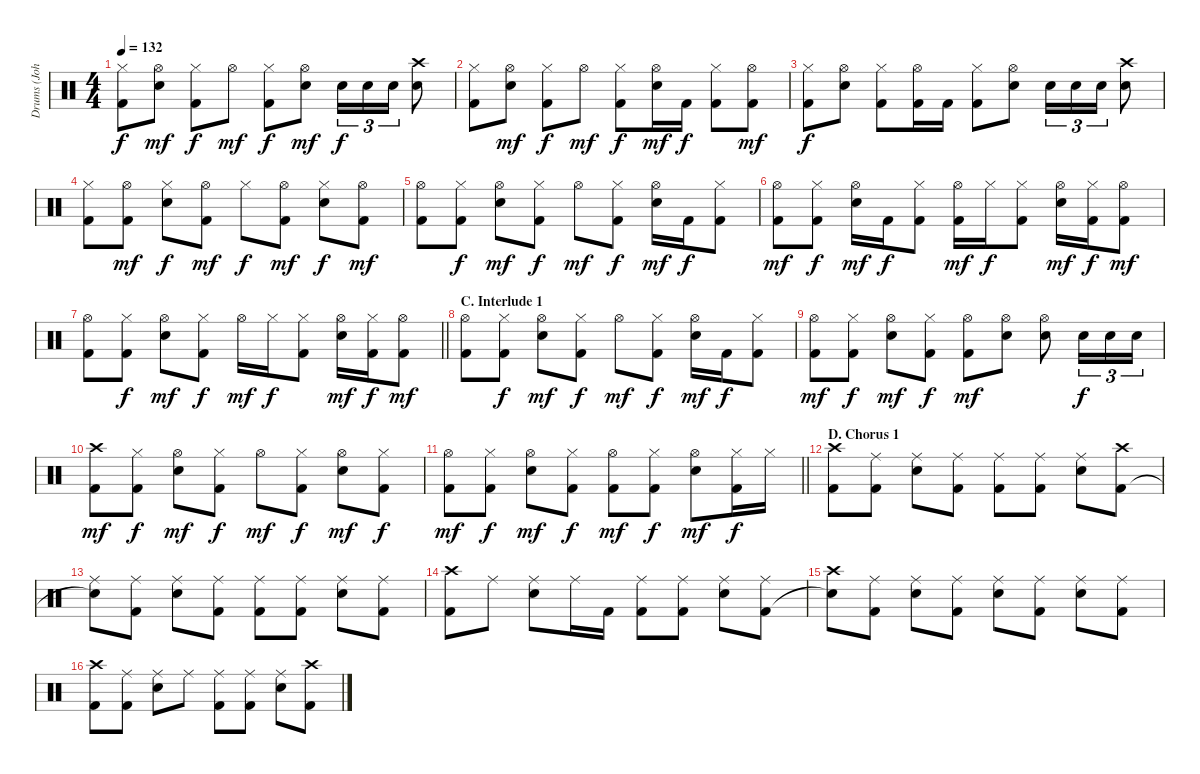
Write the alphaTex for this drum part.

\track ("Drums (John Bonham)" "Drums (Joh") {instrument percussion}
\staff {score}
\articulation defaults
\ts (4 4)
\tempo 132
\clef neutral
\ks c
("Hi-Hat (closed)" "Kick (hit) 2").8{dy f} ("Hi-Hat (open)" "Electric Snare (hit)").8{dy mf} ("Hi-Hat (closed)" "Kick (hit) 2").8{dy f} "Hi-Hat (open)".8{dy mf} ("Hi-Hat (closed)" "Kick (hit) 2").8{dy f} ("Hi-Hat (open)" "Electric Snare (hit)").8{dy mf} "Electric Snare (hit)".16{tu (3 2) dy f} "Electric Snare (hit)".16{tu (3 2)} "Electric Snare (hit)".16{tu (3 2)} ("Crash high (hit)" "Electric Snare (hit)").8 |
("Hi-Hat (closed)" "Kick (hit) 2").8 ("Hi-Hat (open)" "Electric Snare (hit)").8{dy mf} ("Hi-Hat (closed)" "Kick (hit) 2").8{dy f} "Hi-Hat (open)".8{dy mf} ("Hi-Hat (closed)" "Kick (hit) 2").8{dy f} ("Hi-Hat (open)" "Electric Snare (hit)").16{dy mf} "Kick (hit) 2".16{dy f} ("Hi-Hat (closed)" "Kick (hit) 2").8 ("Hi-Hat (open)" "Kick (hit) 2").8{dy mf} |
("Hi-Hat (closed)" "Kick (hit) 2").8{dy f} ("Hi-Hat (open)" "Electric Snare (hit)").8 ("Hi-Hat (closed)" "Kick (hit) 2").8 ("Hi-Hat (open)" "Kick (hit) 2").16 "Kick (hit) 2".16 ("Hi-Hat (closed)" "Kick (hit) 2").8 ("Hi-Hat (open)" "Electric Snare (hit)").8 "Electric Snare (hit)".16{tu (3 2)} "Electric Snare (hit)".16{tu (3 2)} "Electric Snare (hit)".16{tu (3 2)} ("Crash high (hit)" "Electric Snare (hit)").8 |
("Hi-Hat (closed)" "Kick (hit) 2").8 ("Hi-Hat (open)" "Kick (hit) 2").8{dy mf} ("Hi-Hat (closed)" "Electric Snare (hit)").8{dy f} ("Hi-Hat (open)" "Kick (hit) 2").8{dy mf} "Hi-Hat (closed)".8{dy f} ("Hi-Hat (open)" "Kick (hit) 2").8{dy mf} ("Hi-Hat (closed)" "Electric Snare (hit)").8{dy f} ("Hi-Hat (open)" "Kick (hit) 2").8{dy mf} |
("Hi-Hat (open)" "Kick (hit) 2").8 ("Hi-Hat (closed)" "Kick (hit) 2").8{dy f} ("Hi-Hat (open)" "Electric Snare (hit)").8{dy mf} ("Hi-Hat (closed)" "Kick (hit) 2").8{dy f} "Hi-Hat (open)".8{dy mf} ("Hi-Hat (closed)" "Kick (hit) 2").8{dy f} ("Hi-Hat (open)" "Electric Snare (hit)").16{dy mf} "Kick (hit) 2".16{dy f} ("Hi-Hat (closed)" "Kick (hit) 2").8 |
("Hi-Hat (open)" "Kick (hit) 2").8{dy mf} ("Hi-Hat (closed)" "Kick (hit) 2").8{dy f} ("Hi-Hat (open)" "Electric Snare (hit)").16{dy mf} "Kick (hit) 2".16{dy f} ("Hi-Hat (closed)" "Kick (hit) 2").8 ("Hi-Hat (open)" "Kick (hit) 2").16{dy mf} "Hi-Hat (closed)".16{dy f} ("Hi-Hat (closed)" "Kick (hit) 2").8 ("Hi-Hat (open)" "Electric Snare (hit)").16{dy mf} ("Hi-Hat (closed)" "Kick (hit) 2").16{dy f} ("Hi-Hat (open)" "Kick (hit) 2").8{dy mf} |
\barLineRight lightlight
("Hi-Hat (open)" "Kick (hit) 2").8 ("Hi-Hat (closed)" "Kick (hit) 2").8{dy f} ("Hi-Hat (open)" "Electric Snare (hit)").8{dy mf} ("Hi-Hat (closed)" "Kick (hit) 2").8{dy f} "Hi-Hat (open)".16{dy mf} "Hi-Hat (closed)".16{dy f} ("Hi-Hat (closed)" "Kick (hit) 2").8 ("Hi-Hat (open)" "Electric Snare (hit)").16{dy mf} ("Hi-Hat (closed)" "Kick (hit) 2").16{dy f} ("Hi-Hat (open)" "Kick (hit) 2").8{dy mf} |
\section ("" "C. Interlude 1")
("Hi-Hat (open)" "Kick (hit) 2").8 ("Hi-Hat (closed)" "Kick (hit) 2").8{dy f} ("Hi-Hat (open)" "Electric Snare (hit)").8{dy mf} ("Hi-Hat (closed)" "Kick (hit) 2").8{dy f} "Hi-Hat (open)".8{dy mf} ("Hi-Hat (closed)" "Kick (hit) 2").8{dy f} ("Hi-Hat (open)" "Electric Snare (hit)").16{dy mf} "Kick (hit) 2".16{dy f} ("Hi-Hat (closed)" "Kick (hit) 2").8 |
("Hi-Hat (open)" "Kick (hit) 2").8{dy mf} ("Hi-Hat (closed)" "Kick (hit) 2").8{dy f} ("Hi-Hat (open)" "Electric Snare (hit)").8{dy mf} ("Hi-Hat (closed)" "Kick (hit) 2").8{dy f} ("Hi-Hat (open)" "Kick (hit) 2").8{dy mf} ("Hi-Hat (open)" "Electric Snare (hit)").8 ("Hi-Hat (open)" "Electric Snare (hit)").8 "Electric Snare (hit)".16{tu (3 2) dy f} "Electric Snare (hit)".16{tu (3 2)} "Electric Snare (hit)".16{tu (3 2)} |
("Crash high (hit)" "Kick (hit) 2").8{dy mf} ("Hi-Hat (closed)" "Kick (hit) 2").8{dy f} ("Hi-Hat (open)" "Electric Snare (hit)").8{dy mf} ("Hi-Hat (closed)" "Kick (hit) 2").8{dy f} "Hi-Hat (open)".8{dy mf} ("Hi-Hat (closed)" "Kick (hit) 2").8{dy f} ("Hi-Hat (open)" "Electric Snare (hit)").8{dy mf} ("Hi-Hat (closed)" "Kick (hit) 2").8{dy f} |
\barLineRight lightlight
("Hi-Hat (open)" "Kick (hit) 2").8{dy mf} ("Hi-Hat (closed)" "Kick (hit) 2").8{dy f} ("Hi-Hat (open)" "Electric Snare (hit)").8{dy mf} ("Hi-Hat (closed)" "Kick (hit) 2").8{dy f} ("Hi-Hat (open)" "Kick (hit) 2").8{dy mf} ("Hi-Hat (closed)" "Kick (hit) 2").8{dy f} ("Hi-Hat (open)" "Electric Snare (hit)").8{dy mf} ("Hi-Hat (closed)" "Kick (hit) 2").16{dy f} "Hi-Hat (closed)".16 |
\section ("" "D. Chorus 1")
("Crash high (hit)" "Kick (hit) 2").8 ("Ride (middle)" "Kick (hit) 2").8 ("Ride (middle)" "Electric Snare (hit)").8 ("Ride (middle)" "Kick (hit) 2").8 ("Ride (middle)" "Kick (hit) 2").8 ("Ride (middle)" "Kick (hit) 2").8 ("Ride (middle)" "Electric Snare (hit)").8 ("Crash high (hit)" "Kick (hit) 2").8 |
("Ride (middle)" "Snare (hit)"{t}).8 ("Ride (middle)" "Kick (hit) 2").8 ("Ride (middle)" "Electric Snare (hit)").8 ("Ride (middle)" "Kick (hit) 2").8 ("Ride (middle)" "Kick (hit) 2").8 ("Ride (middle)" "Kick (hit) 2").8 ("Ride (middle)" "Electric Snare (hit)").8 ("Ride (middle)" "Kick (hit) 2").8 |
("Crash high (hit)" "Kick (hit) 2").8 "Ride (middle)".8 ("Ride (middle)" "Electric Snare (hit)").8 "Ride (middle)".16 "Kick (hit) 2".16 ("Ride (middle)" "Kick (hit) 2").8 ("Ride (middle)" "Kick (hit) 2").8 ("Ride (middle)" "Electric Snare (hit)").8 ("Ride (middle)" "Kick (hit) 2").8 |
("Crash high (hit)" "Snare (hit)"{t}).8 ("Ride (middle)" "Kick (hit) 2").8 ("Ride (middle)" "Electric Snare (hit)").8 ("Ride (middle)" "Kick (hit) 2").8 ("Ride (middle)" "Electric Snare (hit)").8 ("Ride (middle)" "Kick (hit) 2").8 ("Ride (middle)" "Electric Snare (hit)").8 ("Ride (middle)" "Kick (hit) 2").8 |
("Crash high (hit)" "Kick (hit) 2").8 ("Ride (middle)" "Kick (hit) 2").8 ("Ride (middle)" "Electric Snare (hit)").8 "Ride (middle)".8 ("Ride (middle)" "Kick (hit) 2").8 ("Ride (middle)" "Kick (hit) 2").8 ("Ride (middle)" "Electric Snare (hit)").8 ("Crash high (hit)" "Kick (hit) 2").8
